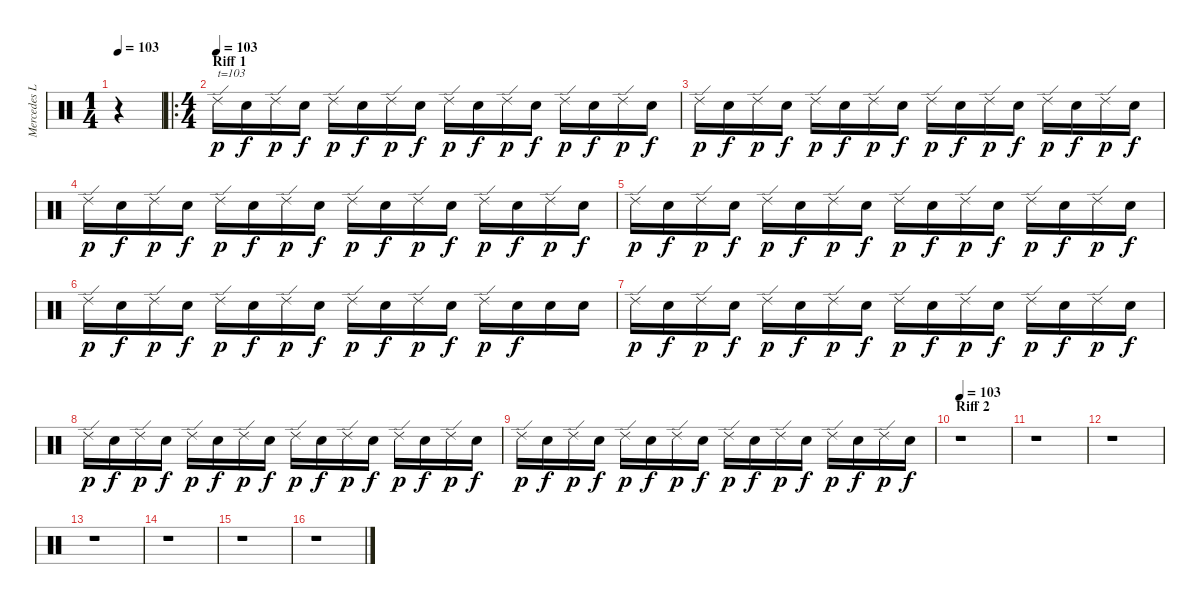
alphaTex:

\track ("Mercedes Lander - Drums" "Mercedes L") {instrument percussion}
\staff {score}
\articulation defaults
\ts (1 4)
\tempo 103
\clef neutral
\ks c
r.4{dy p volume 12 balance 8} |
\ro
\ts (4 4)
\section ("" "Riff 1")
\tempo (103)
"Ride (edge) 2".16{txt "t=103" volume 12 balance 8} "Snare (hit)".16{dy f} "Ride (edge) 2".16{dy p} "Snare (hit)".16{dy f} "Ride (edge) 2".16{dy p} "Snare (hit)".16{dy f} "Ride (edge) 2".16{dy p} "Snare (hit)".16{dy f} "Ride (edge) 2".16{dy p} "Snare (hit)".16{dy f} "Ride (edge) 2".16{dy p} "Snare (hit)".16{dy f} "Ride (edge) 2".16{dy p} "Snare (hit)".16{dy f} "Ride (edge) 2".16{dy p} "Snare (hit)".16{dy f} |
"Ride (edge) 2".16{dy p} "Snare (hit)".16{dy f} "Ride (edge) 2".16{dy p} "Snare (hit)".16{dy f} "Ride (edge) 2".16{dy p} "Snare (hit)".16{dy f} "Ride (edge) 2".16{dy p} "Snare (hit)".16{dy f} "Ride (edge) 2".16{dy p} "Snare (hit)".16{dy f} "Ride (edge) 2".16{dy p} "Snare (hit)".16{dy f} "Ride (edge) 2".16{dy p} "Snare (hit)".16{dy f} "Ride (edge) 2".16{dy p} "Snare (hit)".16{dy f} |
"Ride (edge) 2".16{dy p} "Snare (hit)".16{dy f} "Ride (edge) 2".16{dy p} "Snare (hit)".16{dy f} "Ride (edge) 2".16{dy p} "Snare (hit)".16{dy f} "Ride (edge) 2".16{dy p} "Snare (hit)".16{dy f} "Ride (edge) 2".16{dy p} "Snare (hit)".16{dy f} "Ride (edge) 2".16{dy p} "Snare (hit)".16{dy f} "Ride (edge) 2".16{dy p} "Snare (hit)".16{dy f} "Ride (edge) 2".16{dy p} "Snare (hit)".16{dy f} |
"Ride (edge) 2".16{dy p} "Snare (hit)".16{dy f} "Ride (edge) 2".16{dy p} "Snare (hit)".16{dy f} "Ride (edge) 2".16{dy p} "Snare (hit)".16{dy f} "Ride (edge) 2".16{dy p} "Snare (hit)".16{dy f} "Ride (edge) 2".16{dy p} "Snare (hit)".16{dy f} "Ride (edge) 2".16{dy p} "Snare (hit)".16{dy f} "Ride (edge) 2".16{dy p} "Snare (hit)".16{dy f} "Ride (edge) 2".16{dy p} "Snare (hit)".16{dy f} |
"Ride (edge) 2".16{dy p} "Snare (hit)".16{dy f} "Ride (edge) 2".16{dy p} "Snare (hit)".16{dy f} "Ride (edge) 2".16{dy p} "Snare (hit)".16{dy f} "Ride (edge) 2".16{dy p} "Snare (hit)".16{dy f} "Ride (edge) 2".16{dy p} "Snare (hit)".16{dy f} "Ride (edge) 2".16{dy p} "Snare (hit)".16{dy f} "Ride (edge) 2".16{dy p} "Snare (hit)".16{dy f} "Snare (hit)".16 "Snare (hit)".16 |
"Ride (edge) 2".16{dy p} "Snare (hit)".16{dy f} "Ride (edge) 2".16{dy p} "Snare (hit)".16{dy f} "Ride (edge) 2".16{dy p} "Snare (hit)".16{dy f} "Ride (edge) 2".16{dy p} "Snare (hit)".16{dy f} "Ride (edge) 2".16{dy p} "Snare (hit)".16{dy f} "Ride (edge) 2".16{dy p} "Snare (hit)".16{dy f} "Ride (edge) 2".16{dy p} "Snare (hit)".16{dy f} "Ride (edge) 2".16{dy p} "Snare (hit)".16{dy f} |
"Ride (edge) 2".16{dy p} "Snare (hit)".16{dy f} "Ride (edge) 2".16{dy p} "Snare (hit)".16{dy f} "Ride (edge) 2".16{dy p} "Snare (hit)".16{dy f} "Ride (edge) 2".16{dy p} "Snare (hit)".16{dy f} "Ride (edge) 2".16{dy p} "Snare (hit)".16{dy f} "Ride (edge) 2".16{dy p} "Snare (hit)".16{dy f} "Ride (edge) 2".16{dy p} "Snare (hit)".16{dy f} "Ride (edge) 2".16{dy p} "Snare (hit)".16{dy f} |
"Ride (edge) 2".16{dy p} "Snare (hit)".16{dy f} "Ride (edge) 2".16{dy p} "Snare (hit)".16{dy f} "Ride (edge) 2".16{dy p} "Snare (hit)".16{dy f} "Ride (edge) 2".16{dy p} "Snare (hit)".16{dy f} "Ride (edge) 2".16{dy p} "Snare (hit)".16{dy f} "Ride (edge) 2".16{dy p} "Snare (hit)".16{dy f} "Ride (edge) 2".16{dy p} "Snare (hit)".16{dy f} "Ride (edge) 2".16{dy p} "Snare (hit)".16{dy f} |
\section ("" "Riff 2")
\tempo 103
r.1{volume 12 balance 8} |
r.1 |
r.1 |
r.1 |
r.1 |
r.1 |
r.1
